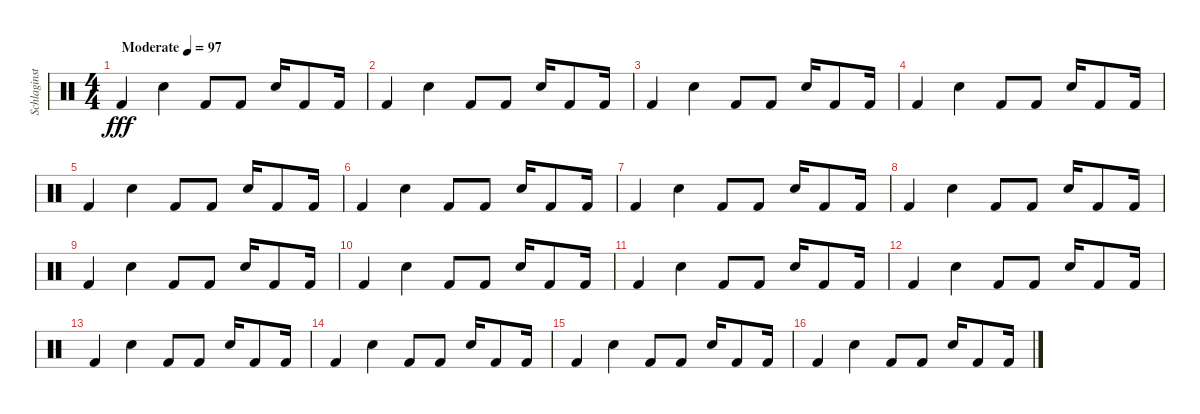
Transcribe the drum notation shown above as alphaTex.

\track ("Schlaginstrumente - Auswahl" "Schlaginst") {instrument percussion}
\staff {score}
\articulation defaults
\ts (4 4)
\tempo (97 "Moderate")
\clef neutral
\ks c "Kick (hit) 2".4{dy fff} "Hand Clap (hit)".4 "Kick (hit) 2".8 "Kick (hit) 2".8 "Hand Clap (hit)".16 "Kick (hit) 2".8 "Kick (hit) 2".16
|
"Kick (hit) 2".4 "Hand Clap (hit)".4 "Kick (hit) 2".8 "Kick (hit) 2".8 "Hand Clap (hit)".16 "Kick (hit) 2".8 "Kick (hit) 2".16 |
"Kick (hit) 2".4 "Hand Clap (hit)".4 "Kick (hit) 2".8 "Kick (hit) 2".8 "Hand Clap (hit)".16 "Kick (hit) 2".8 "Kick (hit) 2".16 |
"Kick (hit) 2".4 "Hand Clap (hit)".4 "Kick (hit) 2".8 "Kick (hit) 2".8 "Hand Clap (hit)".16 "Kick (hit) 2".8 "Kick (hit) 2".16 |
"Kick (hit) 2".4 "Hand Clap (hit)".4 "Kick (hit) 2".8 "Kick (hit) 2".8 "Hand Clap (hit)".16 "Kick (hit) 2".8 "Kick (hit) 2".16 |
"Kick (hit) 2".4 "Hand Clap (hit)".4 "Kick (hit) 2".8 "Kick (hit) 2".8 "Hand Clap (hit)".16 "Kick (hit) 2".8 "Kick (hit) 2".16 |
"Kick (hit) 2".4 "Hand Clap (hit)".4 "Kick (hit) 2".8 "Kick (hit) 2".8 "Hand Clap (hit)".16 "Kick (hit) 2".8 "Kick (hit) 2".16 |
"Kick (hit) 2".4 "Hand Clap (hit)".4 "Kick (hit) 2".8 "Kick (hit) 2".8 "Hand Clap (hit)".16 "Kick (hit) 2".8 "Kick (hit) 2".16 |
"Kick (hit) 2".4 "Hand Clap (hit)".4 "Kick (hit) 2".8 "Kick (hit) 2".8 "Hand Clap (hit)".16 "Kick (hit) 2".8 "Kick (hit) 2".16 |
"Kick (hit) 2".4 "Hand Clap (hit)".4 "Kick (hit) 2".8 "Kick (hit) 2".8 "Hand Clap (hit)".16 "Kick (hit) 2".8 "Kick (hit) 2".16 |
"Kick (hit) 2".4 "Hand Clap (hit)".4 "Kick (hit) 2".8 "Kick (hit) 2".8 "Hand Clap (hit)".16 "Kick (hit) 2".8 "Kick (hit) 2".16 |
"Kick (hit) 2".4 "Hand Clap (hit)".4 "Kick (hit) 2".8 "Kick (hit) 2".8 "Hand Clap (hit)".16 "Kick (hit) 2".8 "Kick (hit) 2".16 |
"Kick (hit) 2".4 "Hand Clap (hit)".4 "Kick (hit) 2".8 "Kick (hit) 2".8 "Hand Clap (hit)".16 "Kick (hit) 2".8 "Kick (hit) 2".16 |
"Kick (hit) 2".4 "Hand Clap (hit)".4 "Kick (hit) 2".8 "Kick (hit) 2".8 "Hand Clap (hit)".16 "Kick (hit) 2".8 "Kick (hit) 2".16 |
"Kick (hit) 2".4 "Hand Clap (hit)".4 "Kick (hit) 2".8 "Kick (hit) 2".8 "Hand Clap (hit)".16 "Kick (hit) 2".8 "Kick (hit) 2".16 |
"Kick (hit) 2".4 "Hand Clap (hit)".4 "Kick (hit) 2".8 "Kick (hit) 2".8 "Hand Clap (hit)".16 "Kick (hit) 2".8 "Kick (hit) 2".16
